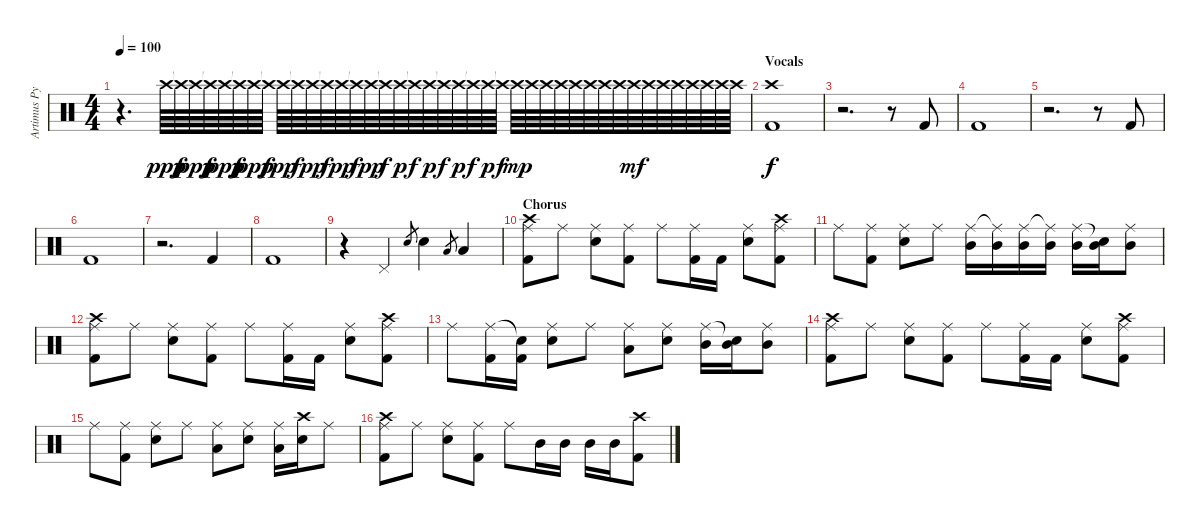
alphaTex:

\track ("Artimus Pyle " "Artimus Py") {instrument percussion}
\staff {score}
\articulation defaults
\ts (4 4)
\tempo 100
\clef neutral
\ks c
r.4{d dy f} "Crash high (hit)".64{dy ppp} "Crash high (hit)"{t}.64{dy f} "Crash high (hit)".64{dy ppp} "Crash high (hit)"{t}.64{dy f} "Crash high (hit)".64{dy ppp} "Crash high (hit)"{t}.64{dy f} "Crash high (hit)".64{dy ppp} "Crash high (hit)"{t}.64{dy f} "Crash high (hit)".64{dy pp} "Crash high (hit)"{t}.64{dy f} "Crash high (hit)".64{dy pp} "Crash high (hit)"{t}.64{dy f} "Crash high (hit)".64{dy pp} "Crash high (hit)"{t}.64{dy f} "Crash high (hit)".64{dy pp} "Crash high (hit)"{t}.64{dy f} "Crash high (hit)".64{dy p} "Crash high (hit)"{t}.64{dy f} "Crash high (hit)".64{dy p} "Crash high (hit)"{t}.64{dy f} "Crash high (hit)".64{dy p} "Crash high (hit)"{t}.64{dy f} "Crash high (hit)".64{dy p} "Crash high (hit)"{t}.64{dy f} "Crash high (hit)".64{dy mp} "Crash high (hit)".64 "Crash high (hit)".64 "Crash high (hit)".64 "Crash high (hit)".64 "Crash high (hit)".64 "Crash high (hit)".64 "Crash high (hit)".64 "Crash high (hit)".64{dy mf} "Crash high (hit)".64 "Crash high (hit)".64 "Crash high (hit)".64 "Crash high (hit)".64 "Crash high (hit)".64 "Crash high (hit)".64 "Crash high (hit)".64 |
\section ("" "Vocals")
("Crash high (hit)" "Kick (hit) 2").1{dy f} |
r.2{d} r.8 "Kick (hit) 2".8 |
"Kick (hit) 2".1 |
r.2{d} r.8 "Kick (hit) 2".8 |
"Kick (hit) 2".1 |
r.2{d} "Kick (hit) 2".4 |
"Kick (hit) 2".1 |
r.4 "Pedal Hi-Hat (hit)".4 "Electric Snare (hit)".8{gr} "Electric Snare (hit)".4 "Low Tom (hit)".8{gr} "Low Tom (hit)".4 |
\section ("" "Chorus")
("Crash high (hit)" "Ride (middle)" "Kick (hit) 2").8 "Ride (middle)".8 ("Ride (middle)" "Electric Snare (hit)").8 ("Ride (middle)" "Kick (hit) 2").8 "Ride (middle)".8 ("Ride (middle)" "Kick (hit) 2").16 "Kick (hit) 2".16 ("Ride (middle)" "Electric Snare (hit)").8 ("Crash high (hit)" "Ride (middle)" "Kick (hit) 2").8 |
"Ride (middle)".8 ("Ride (middle)" "Kick (hit) 2").8 ("Ride (middle)" "Electric Snare (hit)").8 "Ride (middle)".8 ("Ride (middle)" "Mid Tom (hit)").16 ("Ride (middle)"{t} "Mid Tom (hit)").16 ("Ride (middle)" "Mid Tom (hit)").16 ("Ride (middle)"{t} "Mid Tom (hit)").16 ("Ride (middle)" "Mid Tom (hit)").16 ("Snare (hit)"{t} "Mid Tom (hit)").16 ("Ride (middle)" "Mid Tom (hit)").8 |
("Crash high (hit)" "Ride (middle)" "Kick (hit) 2").8 "Ride (middle)".8 ("Ride (middle)" "Electric Snare (hit)").8 ("Ride (middle)" "Kick (hit) 2").8 "Ride (middle)".8 ("Ride (middle)" "Kick (hit) 2").16 "Kick (hit) 2".16 ("Ride (middle)" "Electric Snare (hit)").8 ("Crash high (hit)" "Ride (middle)" "Kick (hit) 2").8 |
"Ride (middle)".8 ("Ride (middle)" "Kick (hit) 2").16 ("Snare (hit)"{t} "Kick (hit) 2").16 ("Ride (middle)" "Electric Snare (hit)").8 "Ride (middle)".8 ("Ride (middle)" "Low Tom (hit)").8 ("Ride (middle)" "Electric Snare (hit)").8 ("Ride (middle)" "Mid Tom (hit)").16 ("Snare (hit)"{t} "Mid Tom (hit)").16 ("Ride (middle)" "Mid Tom (hit)").8 |
("Crash high (hit)" "Ride (middle)" "Kick (hit) 2").8 "Ride (middle)".8 ("Ride (middle)" "Electric Snare (hit)").8 ("Ride (middle)" "Kick (hit) 2").8 "Ride (middle)".8 ("Ride (middle)" "Kick (hit) 2").16 "Kick (hit) 2".16 ("Ride (middle)" "Electric Snare (hit)").8 ("Crash high (hit)" "Ride (middle)" "Kick (hit) 2").8 |
"Ride (middle)".8 ("Ride (middle)" "Kick (hit) 2").8 ("Ride (middle)" "Electric Snare (hit)").8 "Ride (middle)".8 ("Ride (middle)" "Low Tom (hit)").8 ("Ride (middle)" "Electric Snare (hit)").8 ("Ride (middle)" "Low Tom (hit)").16 ("Crash high (hit)" "Electric Snare (hit)").16 "Ride (middle)".8 |
("Crash high (hit)" "Ride (middle)" "Kick (hit) 2").8 "Ride (middle)".8 ("Ride (middle)" "Electric Snare (hit)").8 ("Ride (middle)" "Kick (hit) 2").8 "Ride (middle)".8 "Mid Tom (hit)".16 "Mid Tom (hit)".16 "Mid Tom (hit)".16 "Mid Tom (hit)".16 ("Crash high (hit)" "Kick (hit) 2").8
